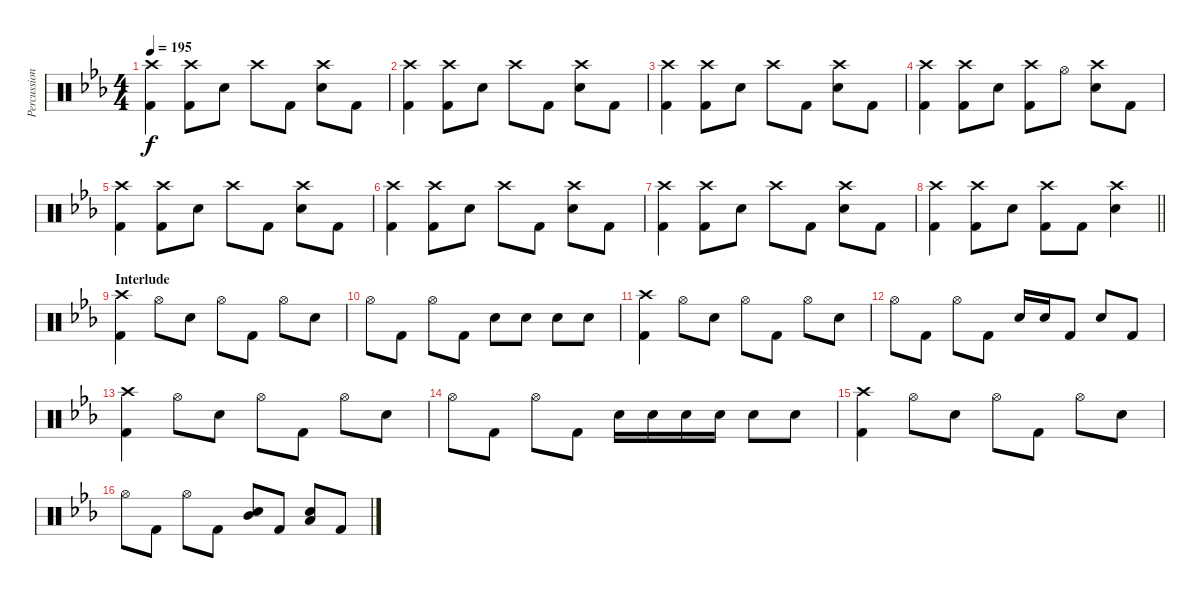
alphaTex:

\track ("Percussion" "Percussion") {instrument percussion}
\staff {score}
\articulation defaults
\ts (4 4)
\tempo 195
\clef neutral
\ks eb
("Crash high (hit)" "Kick (hit) 2").4{dy f} ("Crash high (hit)" "Kick (hit) 2").8 "Snare (hit) 2".8 "Crash high (hit)".8 "Kick (hit) 2".8 ("Crash high (hit)" "Snare (hit) 2").8 "Kick (hit) 2".8 |
("Crash high (hit)" "Kick (hit) 2").4 ("Crash high (hit)" "Kick (hit) 2").8 "Snare (hit) 2".8 "Crash high (hit)".8 "Kick (hit) 2".8 ("Crash high (hit)" "Snare (hit) 2").8 "Kick (hit) 2".8 |
("Crash high (hit)" "Kick (hit) 2").4 ("Crash high (hit)" "Kick (hit) 2").8 "Snare (hit) 2".8 "Crash high (hit)".8 "Kick (hit) 2".8 ("Crash high (hit)" "Snare (hit) 2").8 "Kick (hit) 2".8 |
("Crash high (hit)" "Kick (hit) 2").4 ("Crash high (hit)" "Kick (hit) 2").8 "Snare (hit) 2".8 ("Crash high (hit)" "Kick (hit) 2").8 "Hi-Hat (open)".8 ("Crash high (hit)" "Snare (hit) 2").8 "Kick (hit) 2".8 |
("Crash high (hit)" "Kick (hit) 2").4 ("Crash high (hit)" "Kick (hit) 2").8 "Snare (hit) 2".8 "Crash high (hit)".8 "Kick (hit) 2".8 ("Crash high (hit)" "Snare (hit) 2").8 "Kick (hit) 2".8 |
("Crash high (hit)" "Kick (hit) 2").4 ("Crash high (hit)" "Kick (hit) 2").8 "Snare (hit) 2".8 "Crash high (hit)".8 "Kick (hit) 2".8 ("Crash high (hit)" "Snare (hit) 2").8 "Kick (hit) 2".8 |
("Crash high (hit)" "Kick (hit) 2").4 ("Crash high (hit)" "Kick (hit) 2").8 "Snare (hit) 2".8 "Crash high (hit)".8 "Kick (hit) 2".8 ("Crash high (hit)" "Snare (hit) 2").8 "Kick (hit) 2".8 |
\barLineRight lightlight
("Crash high (hit)" "Kick (hit) 2").4 ("Crash high (hit)" "Kick (hit) 2").8 "Snare (hit) 2".8 ("Crash high (hit)" "Kick (hit) 2").8 "Kick (hit) 2".8 ("Crash high (hit)" "Snare (hit) 2").4 |
\section ("" "Interlude")
("Crash high (hit)" "Kick (hit) 2").4 "Hi-Hat (open)".8 "Snare (hit) 2".8 "Hi-Hat (open)".8 "Kick (hit) 2".8 "Hi-Hat (open)".8 "Snare (hit) 2".8 |
"Hi-Hat (open)".8 "Kick (hit) 2".8 "Hi-Hat (open)".8 "Kick (hit) 2".8 "Snare (hit) 2".8 "Snare (hit) 2".8 "Snare (hit) 2".8 "Snare (hit) 2".8 |
("Crash high (hit)" "Kick (hit) 2").4 "Hi-Hat (open)".8 "Snare (hit) 2".8 "Hi-Hat (open)".8 "Kick (hit) 2".8 "Hi-Hat (open)".8 "Snare (hit) 2".8 |
"Hi-Hat (open)".8 "Kick (hit) 2".8 "Hi-Hat (open)".8 "Kick (hit) 2".8 "Snare (hit) 2".16 "Snare (hit) 2".16 "Kick (hit) 2".8 "Snare (hit) 2".8 "Kick (hit) 2".8 |
("Crash high (hit)" "Kick (hit) 2").4 "Hi-Hat (open)".8 "Snare (hit) 2".8 "Hi-Hat (open)".8 "Kick (hit) 2".8 "Hi-Hat (open)".8 "Snare (hit) 2".8 |
"Hi-Hat (open)".8 "Kick (hit) 2".8 "Hi-Hat (open)".8 "Kick (hit) 2".8 "Snare (hit) 2".16 "Snare (hit) 2".16 "Snare (hit) 2".16 "Snare (hit) 2".16 "Snare (hit) 2".8 "Snare (hit) 2".8 |
("Crash high (hit)" "Kick (hit) 2").4 "Hi-Hat (open)".8 "Snare (hit) 2".8 "Hi-Hat (open)".8 "Kick (hit) 2".8 "Hi-Hat (open)".8 "Snare (hit) 2".8 |
"Hi-Hat (open)".8 "Kick (hit) 2".8 "Hi-Hat (open)".8 "Kick (hit) 2".8 ("Mid Tom (hit)" "Snare (hit) 2").8 "Kick (hit) 2".8 ("Low Tom (hit)" "Snare (hit) 2").8 "Kick (hit) 2".8
